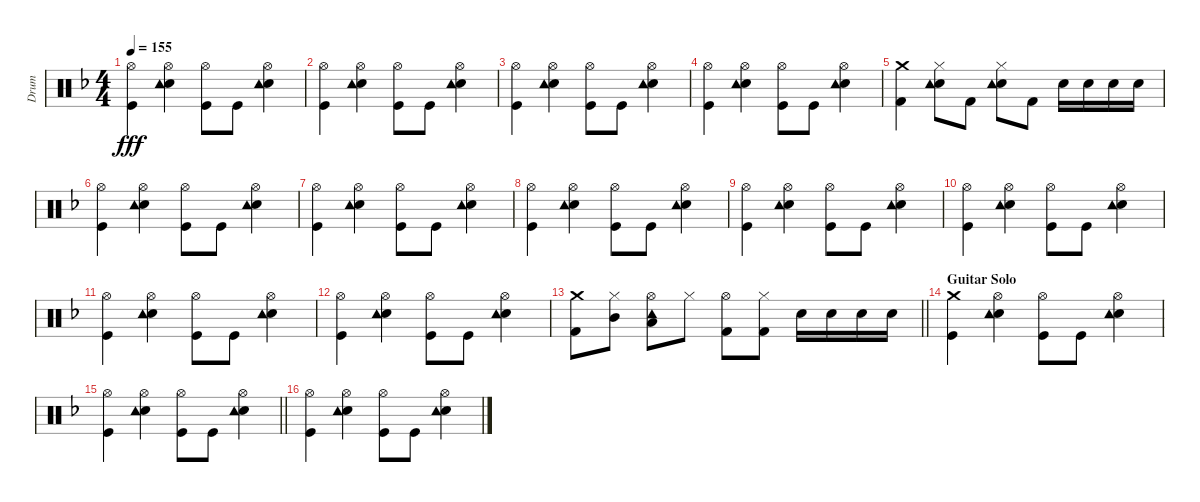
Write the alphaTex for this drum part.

\track ("Drum" "Drum") {instrument percussion}
\staff {score}
\articulation defaults
\ts (4 4)
\tempo 155
\clef neutral
\ks f
("Hi-Hat (open)" "Kick (hit)").4{dy fff} ("Hi-Hat (open)" "Electric Snare (hit)" "Tambourine (hit)").4 ("Hi-Hat (open)" "Kick (hit)").8 "Kick (hit)".8 ("Hi-Hat (open)" "Electric Snare (hit)" "Tambourine (hit)").4 |
("Hi-Hat (open)" "Kick (hit)").4 ("Hi-Hat (open)" "Electric Snare (hit)" "Tambourine (hit)").4 ("Hi-Hat (open)" "Kick (hit)").8 "Kick (hit)".8 ("Hi-Hat (open)" "Electric Snare (hit)" "Tambourine (hit)").4 |
("Hi-Hat (open)" "Kick (hit)").4 ("Hi-Hat (open)" "Electric Snare (hit)" "Tambourine (hit)").4 ("Hi-Hat (open)" "Kick (hit)").8 "Kick (hit)".8 ("Hi-Hat (open)" "Electric Snare (hit)" "Tambourine (hit)").4 |
("Hi-Hat (open)" "Kick (hit)").4 ("Hi-Hat (open)" "Electric Snare (hit)" "Tambourine (hit)").4 ("Hi-Hat (open)" "Kick (hit)").8 "Kick (hit)".8 ("Hi-Hat (open)" "Electric Snare (hit)" "Tambourine (hit)").4 |
("Crash medium (hit)" "Kick (hit) 2").4 ("Hi-Hat (closed)" "Electric Snare (hit)" "Tambourine (hit)").8 "Kick (hit) 2".8 ("Hi-Hat (closed)" "Electric Snare (hit)" "Tambourine (hit)").8 "Kick (hit) 2".8 "Electric Snare (hit)".16 "Electric Snare (hit)".16 "Electric Snare (hit)".16 "Electric Snare (hit)".16 |
("Hi-Hat (open)" "Kick (hit)").4 ("Hi-Hat (open)" "Electric Snare (hit)" "Tambourine (hit)").4 ("Hi-Hat (open)" "Kick (hit)").8 "Kick (hit)".8 ("Hi-Hat (open)" "Electric Snare (hit)" "Tambourine (hit)").4 |
("Hi-Hat (open)" "Kick (hit)").4 ("Hi-Hat (open)" "Electric Snare (hit)" "Tambourine (hit)").4 ("Hi-Hat (open)" "Kick (hit)").8 "Kick (hit)".8 ("Hi-Hat (open)" "Electric Snare (hit)" "Tambourine (hit)").4 |
("Hi-Hat (open)" "Kick (hit)").4 ("Hi-Hat (open)" "Electric Snare (hit)" "Tambourine (hit)").4 ("Hi-Hat (open)" "Kick (hit)").8 "Kick (hit)".8 ("Hi-Hat (open)" "Electric Snare (hit)" "Tambourine (hit)").4 |
("Hi-Hat (open)" "Kick (hit)").4 ("Hi-Hat (open)" "Electric Snare (hit)" "Tambourine (hit)").4 ("Hi-Hat (open)" "Kick (hit)").8 "Kick (hit)".8 ("Hi-Hat (open)" "Electric Snare (hit)" "Tambourine (hit)").4 |
("Hi-Hat (open)" "Kick (hit)").4 ("Hi-Hat (open)" "Electric Snare (hit)" "Tambourine (hit)").4 ("Hi-Hat (open)" "Kick (hit)").8 "Kick (hit)".8 ("Hi-Hat (open)" "Electric Snare (hit)" "Tambourine (hit)").4 |
("Hi-Hat (open)" "Kick (hit)").4 ("Hi-Hat (open)" "Electric Snare (hit)" "Tambourine (hit)").4 ("Hi-Hat (open)" "Kick (hit)").8 "Kick (hit)".8 ("Hi-Hat (open)" "Electric Snare (hit)" "Tambourine (hit)").4 |
("Hi-Hat (open)" "Kick (hit)").4 ("Hi-Hat (open)" "Electric Snare (hit)" "Tambourine (hit)").4 ("Hi-Hat (open)" "Kick (hit)").8 "Kick (hit)".8 ("Hi-Hat (open)" "Electric Snare (hit)" "Tambourine (hit)").4 |
\barLineRight lightlight
("Crash medium (hit)" "Kick (hit) 2").8 ("Hi-Hat (closed)" "Mid Tom (hit)").8 ("Hi-Hat (open)" "Low Tom (hit)" "Tambourine (hit)").8 "Hi-Hat (closed)".8 ("Hi-Hat (open)" "Kick (hit) 2").8 ("Hi-Hat (closed)" "Kick (hit) 2").8 "Electric Snare (hit)".16 "Electric Snare (hit)".16 "Electric Snare (hit)".16 "Electric Snare (hit)".16 |
\section ("" "Guitar Solo")
("Crash medium (hit)" "Kick (hit)").4 ("Hi-Hat (open)" "Electric Snare (hit)" "Tambourine (hit)").4 ("Hi-Hat (open)" "Kick (hit)").8 "Kick (hit)".8 ("Hi-Hat (open)" "Electric Snare (hit)" "Tambourine (hit)").4 |
\barLineRight lightlight
("Hi-Hat (open)" "Kick (hit)").4 ("Hi-Hat (open)" "Electric Snare (hit)" "Tambourine (hit)").4 ("Hi-Hat (open)" "Kick (hit)").8 "Kick (hit)".8 ("Hi-Hat (open)" "Electric Snare (hit)" "Tambourine (hit)").4 |
("Hi-Hat (open)" "Kick (hit)").4 ("Hi-Hat (open)" "Electric Snare (hit)" "Tambourine (hit)").4 ("Hi-Hat (open)" "Kick (hit)").8 "Kick (hit)".8 ("Hi-Hat (open)" "Electric Snare (hit)" "Tambourine (hit)").4
